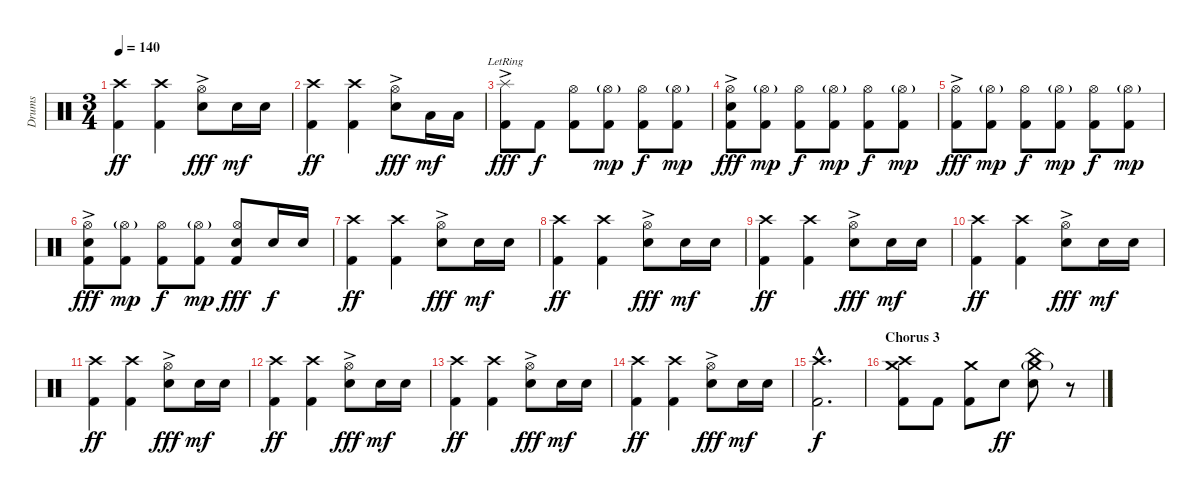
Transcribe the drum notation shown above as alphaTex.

\track ("Drums" "Drums") {instrument percussion}
\staff {score}
\articulation defaults
\ts (3 4)
\tempo 140
\clef neutral
\ks c
("Crash high (hit)" "Kick (hit) 2").4{dy ff} ("Crash high (hit)" "Kick (hit) 2").4 ("Hi-Hat (open)" "Snare (hit) 2"{ac}).8{dy fff} "Snare (hit) 2".16{dy mf} "Snare (hit) 2".16 |
("Crash high (hit)" "Kick (hit) 2").4{dy ff} ("Crash high (hit)" "Kick (hit) 2").4 ("Hi-Hat (open)" "Snare (hit) 2"{ac}).8{dy fff} "Low Tom (hit)".16{dy mf} "Low Tom (hit)".16 |
("Splash (hit)"{lr} "Kick (hit) 2"{ac}).8{dy fff} "Kick (hit) 2".8{dy f} ("Hi-Hat (open)" "Kick (hit) 2").8 ("Hi-Hat (open)"{g} "Kick (hit) 2").8{dy mp} ("Hi-Hat (open)" "Kick (hit) 2").8{dy f} ("Hi-Hat (open)"{g} "Kick (hit) 2").8{dy mp} |
("Hi-Hat (open)" "Snare (hit) 2"{ac} "Kick (hit) 2").8{dy fff} ("Hi-Hat (open)"{g} "Kick (hit) 2").8{dy mp} ("Hi-Hat (open)" "Kick (hit) 2").8{dy f} ("Hi-Hat (open)"{g} "Kick (hit) 2").8{dy mp} ("Hi-Hat (open)" "Kick (hit) 2").8{dy f} ("Hi-Hat (open)"{g} "Kick (hit) 2").8{dy mp} |
("Hi-Hat (open)" "Kick (hit) 2"{ac}).8{dy fff} ("Hi-Hat (open)"{g} "Kick (hit) 2").8{dy mp} ("Hi-Hat (open)" "Kick (hit) 2").8{dy f} ("Hi-Hat (open)"{g} "Kick (hit) 2").8{dy mp} ("Hi-Hat (open)" "Kick (hit) 2").8{dy f} ("Hi-Hat (open)"{g} "Kick (hit) 2").8{dy mp} |
("Hi-Hat (open)" "Snare (hit) 2"{ac} "Kick (hit) 2").8{dy fff} ("Hi-Hat (open)"{g} "Kick (hit) 2").8{dy mp} ("Hi-Hat (open)" "Kick (hit) 2").8{dy f} ("Hi-Hat (open)"{g} "Kick (hit) 2").8{dy mp} ("Hi-Hat (open)" "Snare (hit) 2" "Kick (hit) 2").8{dy fff} "Snare (hit) 2".16{dy f} "Snare (hit) 2".16 |
("Crash high (hit)" "Kick (hit) 2").4{dy ff} ("Crash high (hit)" "Kick (hit) 2").4 ("Hi-Hat (open)" "Snare (hit) 2"{ac}).8{dy fff} "Snare (hit) 2".16{dy mf} "Snare (hit) 2".16 |
("Crash high (hit)" "Kick (hit) 2").4{dy ff} ("Crash high (hit)" "Kick (hit) 2").4 ("Hi-Hat (open)" "Snare (hit) 2"{ac}).8{dy fff} "Snare (hit) 2".16{dy mf} "Snare (hit) 2".16 |
("Crash high (hit)" "Kick (hit) 2").4{dy ff} ("Crash high (hit)" "Kick (hit) 2").4 ("Hi-Hat (open)" "Snare (hit) 2"{ac}).8{dy fff} "Snare (hit) 2".16{dy mf} "Snare (hit) 2".16 |
("Crash high (hit)" "Kick (hit) 2").4{dy ff} ("Crash high (hit)" "Kick (hit) 2").4 ("Hi-Hat (open)" "Snare (hit) 2"{ac}).8{dy fff} "Snare (hit) 2".16{dy mf} "Snare (hit) 2".16 |
("Crash high (hit)" "Kick (hit) 2").4{dy ff} ("Crash high (hit)" "Kick (hit) 2").4 ("Hi-Hat (open)" "Snare (hit) 2"{ac}).8{dy fff} "Snare (hit) 2".16{dy mf} "Snare (hit) 2".16 |
("Crash high (hit)" "Kick (hit) 2").4{dy ff} ("Crash high (hit)" "Kick (hit) 2").4 ("Hi-Hat (open)" "Snare (hit) 2"{ac}).8{dy fff} "Snare (hit) 2".16{dy mf} "Snare (hit) 2".16 |
("Crash high (hit)" "Kick (hit) 2").4{dy ff} ("Crash high (hit)" "Kick (hit) 2").4 ("Hi-Hat (open)" "Snare (hit) 2"{ac}).8{dy fff} "Snare (hit) 2".16{dy mf} "Snare (hit) 2".16 |
("Crash high (hit)" "Kick (hit) 2").4{dy ff} ("Crash high (hit)" "Kick (hit) 2").4 ("Hi-Hat (open)" "Snare (hit) 2"{ac}).8{dy fff} "Snare (hit) 2".16{dy mf} "Snare (hit) 2".16 |
("Crash high (hit)"{hac} "Kick (hit) 2"{hac}).2{d dy f} |
\section ("" "Chorus 3")
("Crash high (hit)" "Crash medium (hit)" "Kick (hit) 2").8 "Kick (hit) 2".8 ("Crash medium (hit)" "Kick (hit) 2").8 "Snare (hit) 2".8{dy ff} ("China (hit)" "Crash medium (hit)"{g} "Snare (hit) 2").8 r.8
